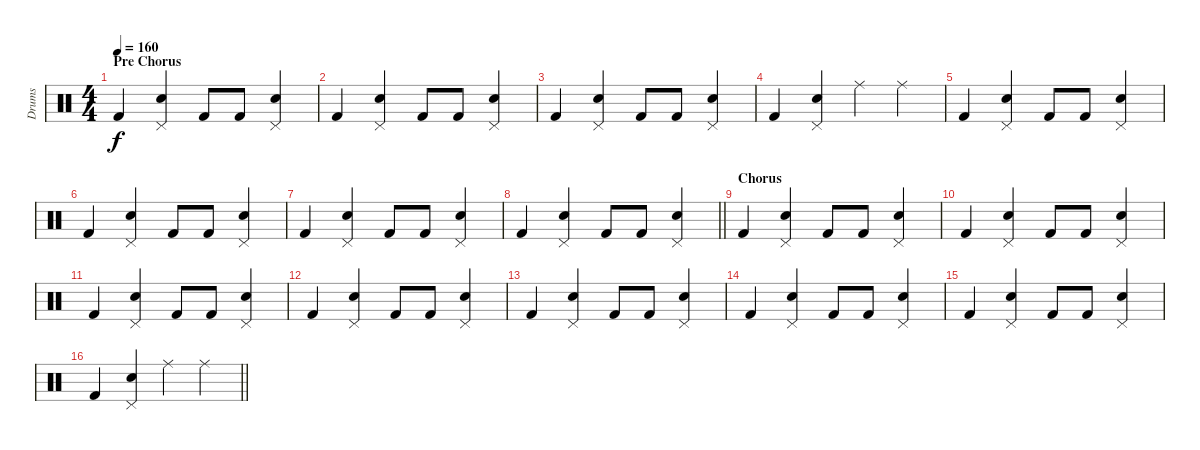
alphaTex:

\track ("Drums" "Drums") {instrument percussion}
\staff {score}
\articulation defaults
\ts (4 4)
\section ("" "Pre Chorus ")
\tempo 160
\clef neutral
\ks c "Kick (hit) 2".4{dy f}
("Pedal Hi-Hat (hit)" "Electric Snare (hit)").4 "Kick (hit) 2".8 "Kick (hit) 2".8 ("Pedal Hi-Hat (hit)" "Electric Snare (hit)").4 |
"Kick (hit) 2".4 ("Pedal Hi-Hat (hit)" "Electric Snare (hit)").4 "Kick (hit) 2".8 "Kick (hit) 2".8 ("Pedal Hi-Hat (hit)" "Electric Snare (hit)").4 |
"Kick (hit) 2".4 ("Pedal Hi-Hat (hit)" "Electric Snare (hit)").4 "Kick (hit) 2".8 "Kick (hit) 2".8 ("Pedal Hi-Hat (hit)" "Electric Snare (hit)").4 |
"Kick (hit) 2".4 ("Pedal Hi-Hat (hit)" "Electric Snare (hit)").4 "Ride (middle)".4 "Ride (middle)".4 |
"Kick (hit) 2".4 ("Pedal Hi-Hat (hit)" "Electric Snare (hit)").4 "Kick (hit) 2".8 "Kick (hit) 2".8 ("Pedal Hi-Hat (hit)" "Electric Snare (hit)").4 |
"Kick (hit) 2".4 ("Pedal Hi-Hat (hit)" "Electric Snare (hit)").4 "Kick (hit) 2".8 "Kick (hit) 2".8 ("Pedal Hi-Hat (hit)" "Electric Snare (hit)").4 |
"Kick (hit) 2".4 ("Pedal Hi-Hat (hit)" "Electric Snare (hit)").4 "Kick (hit) 2".8 "Kick (hit) 2".8 ("Pedal Hi-Hat (hit)" "Electric Snare (hit)").4 |
\barLineRight lightlight "Kick (hit) 2".4
("Pedal Hi-Hat (hit)" "Electric Snare (hit)").4 "Kick (hit) 2".8 "Kick (hit) 2".8 ("Pedal Hi-Hat (hit)" "Electric Snare (hit)").4 |
\section ("" "Chorus")
"Kick (hit) 2".4 ("Pedal Hi-Hat (hit)" "Electric Snare (hit)").4 "Kick (hit) 2".8 "Kick (hit) 2".8 ("Pedal Hi-Hat (hit)" "Electric Snare (hit)").4 |
"Kick (hit) 2".4 ("Pedal Hi-Hat (hit)" "Electric Snare (hit)").4 "Kick (hit) 2".8 "Kick (hit) 2".8 ("Pedal Hi-Hat (hit)" "Electric Snare (hit)").4 |
"Kick (hit) 2".4 ("Pedal Hi-Hat (hit)" "Electric Snare (hit)").4 "Kick (hit) 2".8 "Kick (hit) 2".8 ("Pedal Hi-Hat (hit)" "Electric Snare (hit)").4 |
"Kick (hit) 2".4 ("Pedal Hi-Hat (hit)" "Electric Snare (hit)").4 "Kick (hit) 2".8 "Kick (hit) 2".8 ("Pedal Hi-Hat (hit)" "Electric Snare (hit)").4 |
"Kick (hit) 2".4 ("Pedal Hi-Hat (hit)" "Electric Snare (hit)").4 "Kick (hit) 2".8 "Kick (hit) 2".8 ("Pedal Hi-Hat (hit)" "Electric Snare (hit)").4 |
"Kick (hit) 2".4 ("Pedal Hi-Hat (hit)" "Electric Snare (hit)").4 "Kick (hit) 2".8 "Kick (hit) 2".8 ("Pedal Hi-Hat (hit)" "Electric Snare (hit)").4 |
"Kick (hit) 2".4 ("Pedal Hi-Hat (hit)" "Electric Snare (hit)").4 "Kick (hit) 2".8 "Kick (hit) 2".8 ("Pedal Hi-Hat (hit)" "Electric Snare (hit)").4 |
\barLineRight lightlight "Kick (hit) 2".4
("Pedal Hi-Hat (hit)" "Electric Snare (hit)").4 "Ride (middle)".4 "Ride (middle)".4
